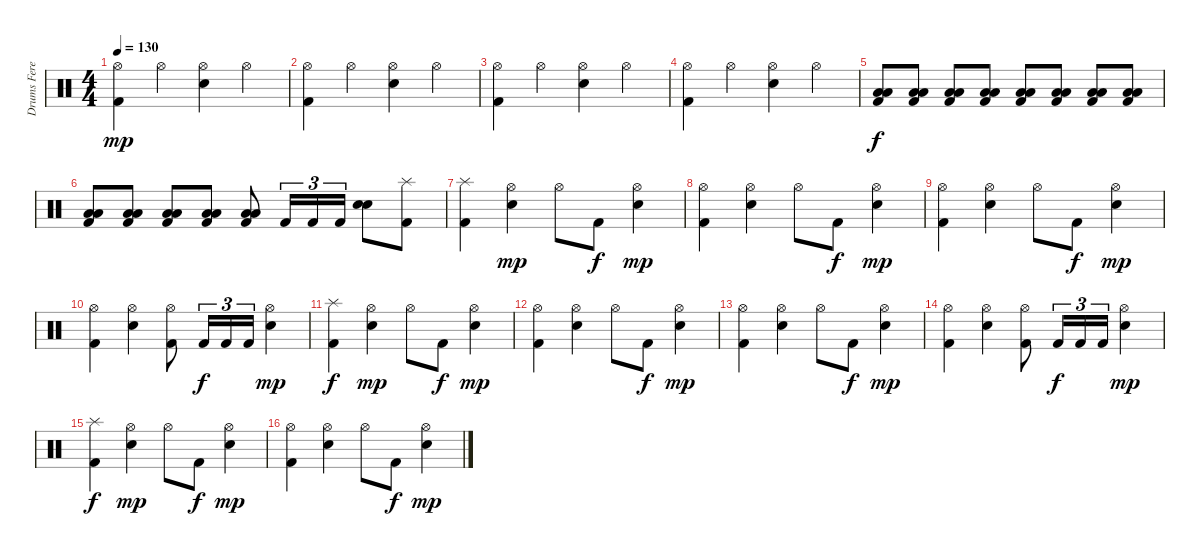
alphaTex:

\track ("Drums Feret" "Drums Fere") {instrument percussion}
\staff {score}
\articulation defaults
\ts (4 4)
\tempo 130
\clef neutral
\ks c
("Kick (hit) 2" "Hi-Hat (open)").4{dy mp} "Hi-Hat (open)".4 ("Electric Snare (hit)" "Hi-Hat (open)").4 "Hi-Hat (open)".4 |
("Kick (hit) 2" "Hi-Hat (open)").4 "Hi-Hat (open)".4 ("Electric Snare (hit)" "Hi-Hat (open)").4 "Hi-Hat (open)".4 |
("Kick (hit) 2" "Hi-Hat (open)").4 "Hi-Hat (open)".4 ("Electric Snare (hit)" "Hi-Hat (open)").4 "Hi-Hat (open)".4 |
("Kick (hit) 2" "Hi-Hat (open)").4 "Hi-Hat (open)".4 ("Electric Snare (hit)" "Hi-Hat (open)").4 "Hi-Hat (open)".4 |
("Kick (hit) 2" "Low Floor Tom (hit)" "Low Tom (hit)").8{dy f} ("Kick (hit) 2" "Low Floor Tom (hit)" "Low Tom (hit)").8 ("Kick (hit) 2" "Low Floor Tom (hit)" "Low Tom (hit)").8 ("Kick (hit) 2" "Low Floor Tom (hit)" "Low Tom (hit)").8 ("Kick (hit) 2" "Low Floor Tom (hit)" "Low Tom (hit)").8 ("Kick (hit) 2" "Low Floor Tom (hit)" "Low Tom (hit)").8 ("Kick (hit) 2" "Low Floor Tom (hit)" "Low Tom (hit)").8 ("Kick (hit) 2" "Low Floor Tom (hit)" "Low Tom (hit)").8 |
("Kick (hit) 2" "Low Floor Tom (hit)" "Low Tom (hit)").8 ("Kick (hit) 2" "Low Floor Tom (hit)" "Low Tom (hit)").8 ("Kick (hit) 2" "Low Floor Tom (hit)" "Low Tom (hit)").8 ("Kick (hit) 2" "Low Floor Tom (hit)" "Low Tom (hit)").8 ("Kick (hit) 2" "Low Floor Tom (hit)" "Low Tom (hit)").8 "Kick (hit) 2".16{tu (3 2)} "Kick (hit) 2".16{tu (3 2)} "Kick (hit) 2".16{tu (3 2)} ("Electric Snare (hit)" "Electric Snare (hit)").8 ("Kick (hit) 2" "Splash (hit)").8 |
("Kick (hit) 2" "Splash (hit)").4 ("Electric Snare (hit)" "Hi-Hat (open)").4{dy mp} "Hi-Hat (open)".8 "Kick (hit) 2".8{dy f} ("Electric Snare (hit)" "Hi-Hat (open)").4{dy mp} |
("Kick (hit) 2" "Hi-Hat (open)").4 ("Electric Snare (hit)" "Hi-Hat (open)").4 "Hi-Hat (open)".8 "Kick (hit) 2".8{dy f} ("Electric Snare (hit)" "Hi-Hat (open)").4{dy mp} |
("Kick (hit) 2" "Hi-Hat (open)").4 ("Electric Snare (hit)" "Hi-Hat (open)").4 "Hi-Hat (open)".8 "Kick (hit) 2".8{dy f} ("Electric Snare (hit)" "Hi-Hat (open)").4{dy mp} |
("Kick (hit) 2" "Hi-Hat (open)").4 ("Electric Snare (hit)" "Hi-Hat (open)").4 ("Kick (hit) 2" "Hi-Hat (open)").8 "Kick (hit) 2".16{tu (3 2) dy f} "Kick (hit) 2".16{tu (3 2)} "Kick (hit) 2".16{tu (3 2)} ("Electric Snare (hit)" "Hi-Hat (open)").4{dy mp} |
("Kick (hit) 2" "Splash (hit)").4{dy f} ("Electric Snare (hit)" "Hi-Hat (open)").4{dy mp} "Hi-Hat (open)".8 "Kick (hit) 2".8{dy f} ("Electric Snare (hit)" "Hi-Hat (open)").4{dy mp} |
("Kick (hit) 2" "Hi-Hat (open)").4 ("Electric Snare (hit)" "Hi-Hat (open)").4 "Hi-Hat (open)".8 "Kick (hit) 2".8{dy f} ("Electric Snare (hit)" "Hi-Hat (open)").4{dy mp} |
("Kick (hit) 2" "Hi-Hat (open)").4 ("Electric Snare (hit)" "Hi-Hat (open)").4 "Hi-Hat (open)".8 "Kick (hit) 2".8{dy f} ("Electric Snare (hit)" "Hi-Hat (open)").4{dy mp} |
("Kick (hit) 2" "Hi-Hat (open)").4 ("Electric Snare (hit)" "Hi-Hat (open)").4 ("Kick (hit) 2" "Hi-Hat (open)").8 "Kick (hit) 2".16{tu (3 2) dy f} "Kick (hit) 2".16{tu (3 2)} "Kick (hit) 2".16{tu (3 2)} ("Electric Snare (hit)" "Hi-Hat (open)").4{dy mp} |
("Kick (hit) 2" "Splash (hit)").4{dy f} ("Electric Snare (hit)" "Hi-Hat (open)").4{dy mp} "Hi-Hat (open)".8 "Kick (hit) 2".8{dy f} ("Electric Snare (hit)" "Hi-Hat (open)").4{dy mp} |
("Kick (hit) 2" "Hi-Hat (open)").4 ("Electric Snare (hit)" "Hi-Hat (open)").4 "Hi-Hat (open)".8 "Kick (hit) 2".8{dy f} ("Electric Snare (hit)" "Hi-Hat (open)").4{dy mp}
